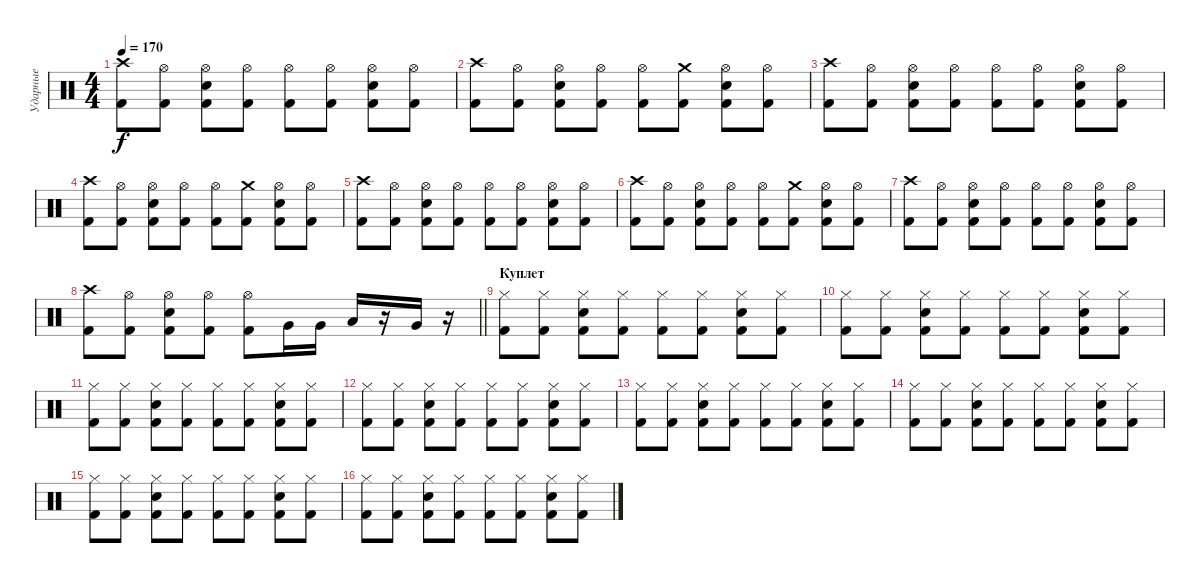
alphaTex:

\track ("Ударные" "Ударные") {instrument percussion}
\staff {score}
\articulation defaults
\ts (4 4)
\tempo 170
\clef neutral
\ks c
("Crash high (hit)" "Kick (hit) 2").8{dy f} ("Hi-Hat (open)" "Kick (hit) 2").8 ("Hi-Hat (open)" "Snare (hit) 2" "Kick (hit) 2").8 ("Hi-Hat (open)" "Kick (hit) 2").8 ("Hi-Hat (open)" "Kick (hit) 2").8 ("Hi-Hat (open)" "Kick (hit) 2").8 ("Hi-Hat (open)" "Snare (hit) 2" "Kick (hit) 2").8 ("Hi-Hat (open)" "Kick (hit) 2").8 |
("Crash high (hit)" "Kick (hit) 2").8 ("Hi-Hat (open)" "Kick (hit) 2").8 ("Hi-Hat (open)" "Snare (hit) 2" "Kick (hit) 2").8 ("Hi-Hat (open)" "Kick (hit) 2").8 ("Hi-Hat (open)" "Kick (hit) 2").8 ("Crash medium (hit)" "Kick (hit) 2").8 ("Hi-Hat (open)" "Snare (hit) 2" "Kick (hit) 2").8 ("Hi-Hat (open)" "Kick (hit) 2").8 |
("Crash high (hit)" "Kick (hit) 2").8 ("Hi-Hat (open)" "Kick (hit) 2").8 ("Hi-Hat (open)" "Snare (hit) 2" "Kick (hit) 2").8 ("Hi-Hat (open)" "Kick (hit) 2").8 ("Hi-Hat (open)" "Kick (hit) 2").8 ("Hi-Hat (open)" "Kick (hit) 2").8 ("Hi-Hat (open)" "Snare (hit) 2" "Kick (hit) 2").8 ("Hi-Hat (open)" "Kick (hit) 2").8 |
("Crash high (hit)" "Kick (hit) 2").8 ("Hi-Hat (open)" "Kick (hit) 2").8 ("Hi-Hat (open)" "Snare (hit) 2" "Kick (hit) 2").8 ("Hi-Hat (open)" "Kick (hit) 2").8 ("Hi-Hat (open)" "Kick (hit) 2").8 ("Crash medium (hit)" "Kick (hit) 2").8 ("Hi-Hat (open)" "Snare (hit) 2" "Kick (hit) 2").8 ("Hi-Hat (open)" "Kick (hit) 2").8 |
("Crash high (hit)" "Kick (hit) 2").8 ("Hi-Hat (open)" "Kick (hit) 2").8 ("Hi-Hat (open)" "Snare (hit) 2" "Kick (hit) 2").8 ("Hi-Hat (open)" "Kick (hit) 2").8 ("Hi-Hat (open)" "Kick (hit) 2").8 ("Hi-Hat (open)" "Kick (hit) 2").8 ("Hi-Hat (open)" "Snare (hit) 2" "Kick (hit) 2").8 ("Hi-Hat (open)" "Kick (hit) 2").8 |
("Crash high (hit)" "Kick (hit) 2").8 ("Hi-Hat (open)" "Kick (hit) 2").8 ("Hi-Hat (open)" "Snare (hit) 2" "Kick (hit) 2").8 ("Hi-Hat (open)" "Kick (hit) 2").8 ("Hi-Hat (open)" "Kick (hit) 2").8 ("Crash medium (hit)" "Kick (hit) 2").8 ("Hi-Hat (open)" "Snare (hit) 2" "Kick (hit) 2").8 ("Hi-Hat (open)" "Kick (hit) 2").8 |
("Crash high (hit)" "Kick (hit) 2").8 ("Hi-Hat (open)" "Kick (hit) 2").8 ("Hi-Hat (open)" "Snare (hit) 2" "Kick (hit) 2").8 ("Hi-Hat (open)" "Kick (hit) 2").8 ("Hi-Hat (open)" "Kick (hit) 2").8 ("Hi-Hat (open)" "Kick (hit) 2").8 ("Hi-Hat (open)" "Snare (hit) 2" "Kick (hit) 2").8 ("Hi-Hat (open)" "Kick (hit) 2").8 |
\barLineRight lightlight
("Crash high (hit)" "Kick (hit) 2").8 ("Hi-Hat (open)" "Kick (hit) 2").8 ("Hi-Hat (open)" "Snare (hit) 2" "Kick (hit) 2").8 ("Hi-Hat (open)" "Kick (hit) 2").8 ("Hi-Hat (open)" "Kick (hit) 2").8 "Very Low Tom (hit)".16 "Very Low Tom (hit)".16 "Low Tom (hit)".16 r.16 "Very Low Tom (hit)".16 r.16 |
\section ("" "Куплет")
("Hi-Hat (closed)" "Kick (hit) 2").8 ("Hi-Hat (closed)" "Kick (hit) 2").8 ("Hi-Hat (closed)" "Kick (hit) 2" "Snare (hit) 2").8 ("Hi-Hat (closed)" "Kick (hit) 2").8 ("Hi-Hat (closed)" "Kick (hit) 2").8 ("Hi-Hat (closed)" "Kick (hit) 2").8 ("Hi-Hat (closed)" "Kick (hit) 2" "Snare (hit) 2").8 ("Hi-Hat (closed)" "Kick (hit) 2").8 |
("Hi-Hat (closed)" "Kick (hit) 2").8 ("Hi-Hat (closed)" "Kick (hit) 2").8 ("Hi-Hat (closed)" "Kick (hit) 2" "Snare (hit) 2").8 ("Hi-Hat (closed)" "Kick (hit) 2").8 ("Hi-Hat (closed)" "Kick (hit) 2").8 ("Hi-Hat (closed)" "Kick (hit) 2").8 ("Hi-Hat (closed)" "Kick (hit) 2" "Snare (hit) 2").8 ("Hi-Hat (closed)" "Kick (hit) 2").8 |
("Hi-Hat (closed)" "Kick (hit) 2").8 ("Hi-Hat (closed)" "Kick (hit) 2").8 ("Hi-Hat (closed)" "Kick (hit) 2" "Snare (hit) 2").8 ("Hi-Hat (closed)" "Kick (hit) 2").8 ("Hi-Hat (closed)" "Kick (hit) 2").8 ("Hi-Hat (closed)" "Kick (hit) 2").8 ("Hi-Hat (closed)" "Kick (hit) 2" "Snare (hit) 2").8 ("Hi-Hat (closed)" "Kick (hit) 2").8 |
("Hi-Hat (closed)" "Kick (hit) 2").8 ("Hi-Hat (closed)" "Kick (hit) 2").8 ("Hi-Hat (closed)" "Kick (hit) 2" "Snare (hit) 2").8 ("Hi-Hat (closed)" "Kick (hit) 2").8 ("Hi-Hat (closed)" "Kick (hit) 2").8 ("Hi-Hat (closed)" "Kick (hit) 2").8 ("Hi-Hat (closed)" "Kick (hit) 2" "Snare (hit) 2").8 ("Hi-Hat (closed)" "Kick (hit) 2").8 |
("Hi-Hat (closed)" "Kick (hit) 2").8 ("Hi-Hat (closed)" "Kick (hit) 2").8 ("Hi-Hat (closed)" "Kick (hit) 2" "Snare (hit) 2").8 ("Hi-Hat (closed)" "Kick (hit) 2").8 ("Hi-Hat (closed)" "Kick (hit) 2").8 ("Hi-Hat (closed)" "Kick (hit) 2").8 ("Hi-Hat (closed)" "Kick (hit) 2" "Snare (hit) 2").8 ("Hi-Hat (closed)" "Kick (hit) 2").8 |
("Hi-Hat (closed)" "Kick (hit) 2").8 ("Hi-Hat (closed)" "Kick (hit) 2").8 ("Hi-Hat (closed)" "Kick (hit) 2" "Snare (hit) 2").8 ("Hi-Hat (closed)" "Kick (hit) 2").8 ("Hi-Hat (closed)" "Kick (hit) 2").8 ("Hi-Hat (closed)" "Kick (hit) 2").8 ("Hi-Hat (closed)" "Kick (hit) 2" "Snare (hit) 2").8 ("Hi-Hat (closed)" "Kick (hit) 2").8 |
("Hi-Hat (closed)" "Kick (hit) 2").8 ("Hi-Hat (closed)" "Kick (hit) 2").8 ("Hi-Hat (closed)" "Kick (hit) 2" "Snare (hit) 2").8 ("Hi-Hat (closed)" "Kick (hit) 2").8 ("Hi-Hat (closed)" "Kick (hit) 2").8 ("Hi-Hat (closed)" "Kick (hit) 2").8 ("Hi-Hat (closed)" "Kick (hit) 2" "Snare (hit) 2").8 ("Hi-Hat (closed)" "Kick (hit) 2").8 |
("Hi-Hat (closed)" "Kick (hit) 2").8 ("Hi-Hat (closed)" "Kick (hit) 2").8 ("Hi-Hat (closed)" "Kick (hit) 2" "Snare (hit) 2").8 ("Hi-Hat (closed)" "Kick (hit) 2").8 ("Hi-Hat (closed)" "Kick (hit) 2").8 ("Hi-Hat (closed)" "Kick (hit) 2").8 ("Hi-Hat (closed)" "Kick (hit) 2" "Snare (hit) 2").8 ("Hi-Hat (closed)" "Kick (hit) 2").8
